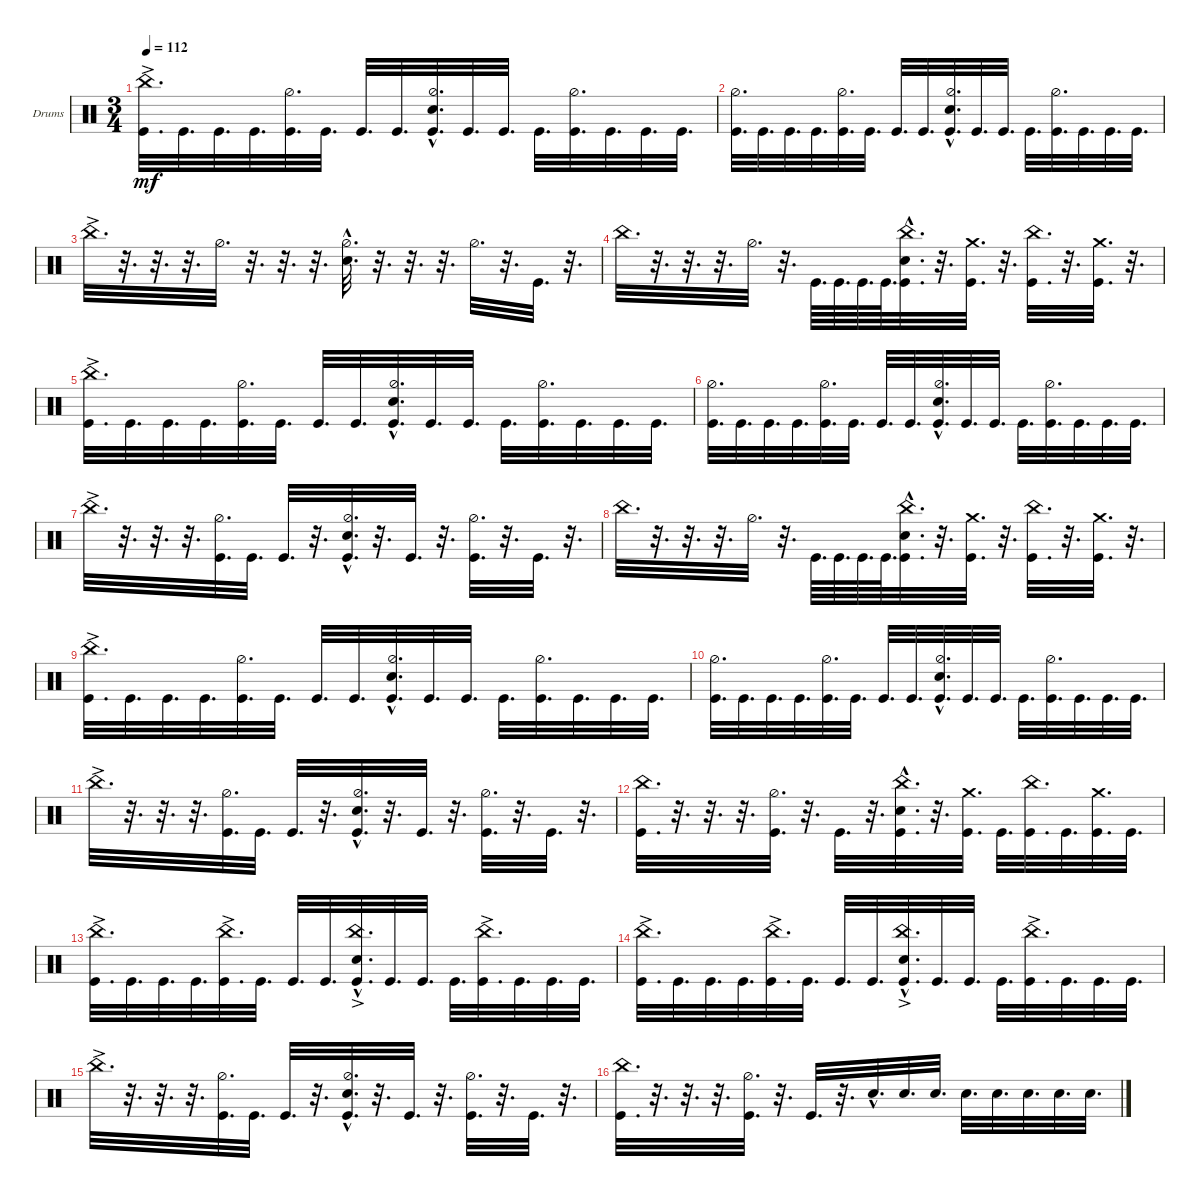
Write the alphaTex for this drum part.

\bracketExtendMode groupsimilarinstruments
\firstSystemTrackNameOrientation horizontal
\otherSystemsTrackNameOrientation horizontal
\track ("Drumkit" "Drums") {instrument percussion}
\staff {score}
\articulation defaults
\ts (3 4)
\tempo 112
\clef neutral
\ks c
("Kick (hit)" "China (hit)"{ac}).32{d dy mf} "Kick (hit)".32{d} "Kick (hit)".32{d} "Kick (hit)".32{d} ("Kick (hit)" "Hi-Hat (half)").32{d} "Kick (hit)".32{d} "Kick (hit)".32{d} "Kick (hit)".32{d} ("Kick (hit)" "Snare (hit) 2"{hac} "Hi-Hat (half)").32{d} "Kick (hit)".32{d} "Kick (hit)".32{d} "Kick (hit)".32{d} ("Kick (hit)" "Hi-Hat (half)").32{d} "Kick (hit)".32{d} "Kick (hit)".32{d} "Kick (hit)".32{d} |
("Kick (hit)" "Hi-Hat (half)").32{d} "Kick (hit)".32{d} "Kick (hit)".32{d} "Kick (hit)".32{d} ("Kick (hit)" "Hi-Hat (half)").32{d} "Kick (hit)".32{d} "Kick (hit)".32{d} "Kick (hit)".32{d} ("Kick (hit)" "Snare (hit) 2"{hac} "Hi-Hat (half)").32{d} "Kick (hit)".32{d} "Kick (hit)".32{d} "Kick (hit)".32{d} ("Kick (hit)" "Hi-Hat (half)").32{d} "Kick (hit)".32{d} "Kick (hit)".32{d} "Kick (hit)".32{d} |
"China (hit)"{ac}.32{d} r.32{d} r.32{d} r.32{d} "Hi-Hat (half)".32{d} r.32{d} r.32{d} r.32{d} ("Snare (hit) 2"{hac} "Hi-Hat (half)").32{d} r.32{d} r.32{d} r.32{d} "Hi-Hat (half)".32{d} r.32{d} "Kick (hit)".32{d} r.32{d} |
"China (hit)".32{d} r.32{d} r.32{d} r.32{d} "Hi-Hat (half)".32{d} r.32{d} "Kick (hit)".64{d} "Kick (hit)".64{d} "Kick (hit)".64{d} "Kick (hit)".64{d} ("China (hit)" "Kick (hit)" "Snare (hit) 2"{hac}).32{d} r.32{d} ("Kick (hit)" "Crash medium (hit)").32{d} r.32{d} ("China (hit)" "Kick (hit)").32{d} r.32{d} ("Kick (hit)" "Crash medium (hit)").32{d} r.32{d} |
("Kick (hit)" "China (hit)"{ac}).32{d} "Kick (hit)".32{d} "Kick (hit)".32{d} "Kick (hit)".32{d} ("Kick (hit)" "Hi-Hat (half)").32{d} "Kick (hit)".32{d} "Kick (hit)".32{d} "Kick (hit)".32{d} ("Kick (hit)" "Snare (hit) 2"{hac} "Hi-Hat (half)").32{d} "Kick (hit)".32{d} "Kick (hit)".32{d} "Kick (hit)".32{d} ("Kick (hit)" "Hi-Hat (half)").32{d} "Kick (hit)".32{d} "Kick (hit)".32{d} "Kick (hit)".32{d} |
("Kick (hit)" "Hi-Hat (half)").32{d} "Kick (hit)".32{d} "Kick (hit)".32{d} "Kick (hit)".32{d} ("Kick (hit)" "Hi-Hat (half)").32{d} "Kick (hit)".32{d} "Kick (hit)".32{d} "Kick (hit)".32{d} ("Kick (hit)" "Snare (hit) 2"{hac} "Hi-Hat (half)").32{d} "Kick (hit)".32{d} "Kick (hit)".32{d} "Kick (hit)".32{d} ("Kick (hit)" "Hi-Hat (half)").32{d} "Kick (hit)".32{d} "Kick (hit)".32{d} "Kick (hit)".32{d} |
"China (hit)"{ac}.32{d} r.32{d} r.32{d} r.32{d} ("Hi-Hat (half)" "Kick (hit)").32{d} "Kick (hit)".32{d} "Kick (hit)".32{d} r.32{d} ("Snare (hit) 2"{hac} "Hi-Hat (half)" "Kick (hit)").32{d} r.32{d} "Kick (hit)".32{d} r.32{d} ("Hi-Hat (half)" "Kick (hit)").32{d} r.32{d} "Kick (hit)".32{d} r.32{d} |
"China (hit)".32{d} r.32{d} r.32{d} r.32{d} "Hi-Hat (half)".32{d} r.32{d} "Kick (hit)".64{d} "Kick (hit)".64{d} "Kick (hit)".64{d} "Kick (hit)".64{d} ("China (hit)" "Kick (hit)" "Snare (hit) 2"{hac}).32{d} r.32{d} ("Kick (hit)" "Crash medium (hit)").32{d} r.32{d} ("China (hit)" "Kick (hit)").32{d} r.32{d} ("Kick (hit)" "Crash medium (hit)").32{d} r.32{d} |
("Kick (hit)" "China (hit)"{ac}).32{d} "Kick (hit)".32{d} "Kick (hit)".32{d} "Kick (hit)".32{d} ("Kick (hit)" "Hi-Hat (half)").32{d} "Kick (hit)".32{d} "Kick (hit)".32{d} "Kick (hit)".32{d} ("Kick (hit)" "Snare (hit) 2"{hac} "Hi-Hat (half)").32{d} "Kick (hit)".32{d} "Kick (hit)".32{d} "Kick (hit)".32{d} ("Kick (hit)" "Hi-Hat (half)").32{d} "Kick (hit)".32{d} "Kick (hit)".32{d} "Kick (hit)".32{d} |
("Kick (hit)" "Hi-Hat (half)").32{d} "Kick (hit)".32{d} "Kick (hit)".32{d} "Kick (hit)".32{d} ("Kick (hit)" "Hi-Hat (half)").32{d} "Kick (hit)".32{d} "Kick (hit)".32{d} "Kick (hit)".32{d} ("Kick (hit)" "Snare (hit) 2"{hac} "Hi-Hat (half)").32{d} "Kick (hit)".32{d} "Kick (hit)".32{d} "Kick (hit)".32{d} ("Kick (hit)" "Hi-Hat (half)").32{d} "Kick (hit)".32{d} "Kick (hit)".32{d} "Kick (hit)".32{d} |
"China (hit)"{ac}.32{d} r.32{d} r.32{d} r.32{d} ("Hi-Hat (half)" "Kick (hit)").32{d} "Kick (hit)".32{d} "Kick (hit)".32{d} r.32{d} ("Snare (hit) 2"{hac} "Hi-Hat (half)" "Kick (hit)").32{d} r.32{d} "Kick (hit)".32{d} r.32{d} ("Hi-Hat (half)" "Kick (hit)").32{d} r.32{d} "Kick (hit)".32{d} r.32{d} |
("China (hit)" "Kick (hit)").32{d} r.32{d} r.32{d} r.32{d} ("Hi-Hat (half)" "Kick (hit)").32{d} r.32{d} "Kick (hit)".32{d} r.32{d} ("China (hit)" "Kick (hit)" "Snare (hit) 2"{hac}).32{d} r.32{d} ("Kick (hit)" "Crash medium (hit)").32{d} "Kick (hit)".32{d} ("China (hit)" "Kick (hit)").32{d} "Kick (hit)".32{d} ("Kick (hit)" "Crash medium (hit)").32{d} "Kick (hit)".32{d} |
("Kick (hit)" "China (hit)"{ac}).32{d} "Kick (hit)".32{d} "Kick (hit)".32{d} "Kick (hit)".32{d} ("Kick (hit)" "China (hit)"{ac}).32{d} "Kick (hit)".32{d} "Kick (hit)".32{d} "Kick (hit)".32{d} ("Kick (hit)" "Snare (hit) 2"{hac} "China (hit)"{ac}).32{d} "Kick (hit)".32{d} "Kick (hit)".32{d} "Kick (hit)".32{d} ("Kick (hit)" "China (hit)"{ac}).32{d} "Kick (hit)".32{d} "Kick (hit)".32{d} "Kick (hit)".32{d} |
("Kick (hit)" "China (hit)"{ac}).32{d} "Kick (hit)".32{d} "Kick (hit)".32{d} "Kick (hit)".32{d} ("Kick (hit)" "China (hit)"{ac}).32{d} "Kick (hit)".32{d} "Kick (hit)".32{d} "Kick (hit)".32{d} ("Kick (hit)" "Snare (hit) 2"{hac} "China (hit)"{ac}).32{d} "Kick (hit)".32{d} "Kick (hit)".32{d} "Kick (hit)".32{d} ("Kick (hit)" "China (hit)"{ac}).32{d} "Kick (hit)".32{d} "Kick (hit)".32{d} "Kick (hit)".32{d} |
"China (hit)"{ac}.32{d} r.32{d} r.32{d} r.32{d} ("Hi-Hat (half)" "Kick (hit)").32{d} "Kick (hit)".32{d} "Kick (hit)".32{d} r.32{d} ("Snare (hit) 2"{hac} "Hi-Hat (half)" "Kick (hit)").32{d} r.32{d} "Kick (hit)".32{d} r.32{d} ("Hi-Hat (half)" "Kick (hit)").32{d} r.32{d} "Kick (hit)".32{d} r.32{d} |
("China (hit)" "Kick (hit)").32{d} r.32{d} r.32{d} r.32{d} ("Hi-Hat (half)" "Kick (hit)").32{d} r.32{d} "Kick (hit)".32{d} r.32{d} "Snare (hit) 2"{hac}.32{d} "Snare (hit) 2".32{d} "Snare (hit) 2".32{d} "Snare (hit) 2".32{d} "Snare (hit) 2".32{d} "Snare (hit) 2".32{d} "Snare (hit) 2".32{d} "Snare (hit) 2".32{d}
